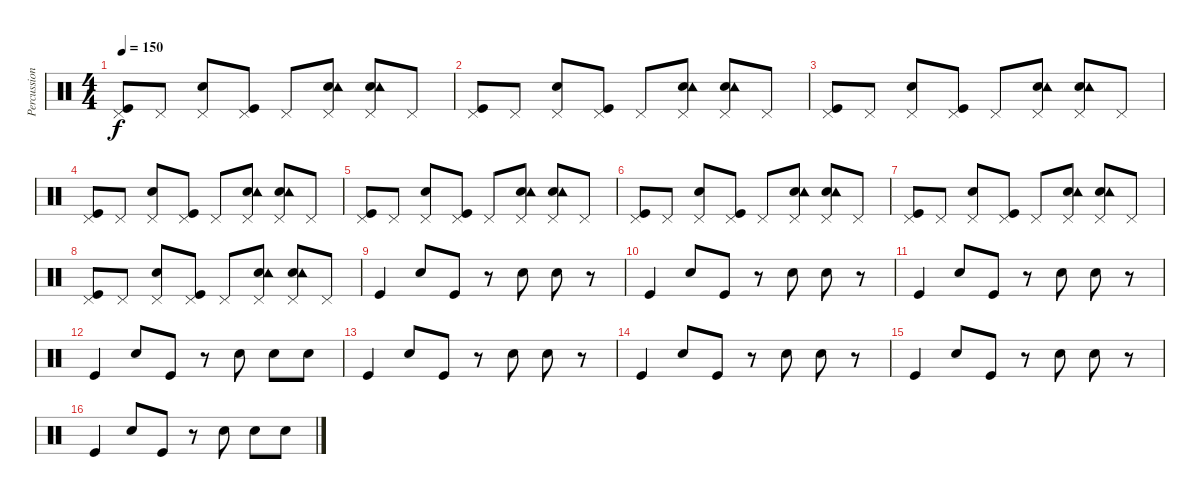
\track ("Percussion" "Percussion") {instrument percussion}
\staff {score}
\articulation defaults
\ts (4 4)
\tempo 150
\clef neutral
\ks c
("Kick (hit)" "Pedal Hi-Hat (hit)").8{dy f} "Pedal Hi-Hat (hit)".8 ("Electric Snare (hit)" "Pedal Hi-Hat (hit)").8 ("Kick (hit)" "Pedal Hi-Hat (hit)").8 "Pedal Hi-Hat (hit)".8 ("Electric Snare (hit)" "Tambourine (hit)" "Pedal Hi-Hat (hit)").8 ("Electric Snare (hit)" "Tambourine (hit)" "Pedal Hi-Hat (hit)").8 "Pedal Hi-Hat (hit)".8 |
("Kick (hit)" "Pedal Hi-Hat (hit)").8 "Pedal Hi-Hat (hit)".8 ("Electric Snare (hit)" "Pedal Hi-Hat (hit)").8 ("Kick (hit)" "Pedal Hi-Hat (hit)").8 "Pedal Hi-Hat (hit)".8 ("Electric Snare (hit)" "Tambourine (hit)" "Pedal Hi-Hat (hit)").8 ("Electric Snare (hit)" "Tambourine (hit)" "Pedal Hi-Hat (hit)").8 "Pedal Hi-Hat (hit)".8 |
("Kick (hit)" "Pedal Hi-Hat (hit)").8 "Pedal Hi-Hat (hit)".8 ("Electric Snare (hit)" "Pedal Hi-Hat (hit)").8 ("Kick (hit)" "Pedal Hi-Hat (hit)").8 "Pedal Hi-Hat (hit)".8 ("Electric Snare (hit)" "Tambourine (hit)" "Pedal Hi-Hat (hit)").8 ("Electric Snare (hit)" "Tambourine (hit)" "Pedal Hi-Hat (hit)").8 "Pedal Hi-Hat (hit)".8 |
("Kick (hit)" "Pedal Hi-Hat (hit)").8 "Pedal Hi-Hat (hit)".8 ("Electric Snare (hit)" "Pedal Hi-Hat (hit)").8 ("Kick (hit)" "Pedal Hi-Hat (hit)").8 "Pedal Hi-Hat (hit)".8 ("Electric Snare (hit)" "Tambourine (hit)" "Pedal Hi-Hat (hit)").8 ("Electric Snare (hit)" "Tambourine (hit)" "Pedal Hi-Hat (hit)").8 "Pedal Hi-Hat (hit)".8 |
("Kick (hit)" "Pedal Hi-Hat (hit)").8 "Pedal Hi-Hat (hit)".8 ("Electric Snare (hit)" "Pedal Hi-Hat (hit)").8 ("Kick (hit)" "Pedal Hi-Hat (hit)").8 "Pedal Hi-Hat (hit)".8 ("Electric Snare (hit)" "Tambourine (hit)" "Pedal Hi-Hat (hit)").8 ("Electric Snare (hit)" "Tambourine (hit)" "Pedal Hi-Hat (hit)").8 "Pedal Hi-Hat (hit)".8 |
("Kick (hit)" "Pedal Hi-Hat (hit)").8 "Pedal Hi-Hat (hit)".8 ("Electric Snare (hit)" "Pedal Hi-Hat (hit)").8 ("Kick (hit)" "Pedal Hi-Hat (hit)").8 "Pedal Hi-Hat (hit)".8 ("Electric Snare (hit)" "Tambourine (hit)" "Pedal Hi-Hat (hit)").8 ("Electric Snare (hit)" "Tambourine (hit)" "Pedal Hi-Hat (hit)").8 "Pedal Hi-Hat (hit)".8 |
("Kick (hit)" "Pedal Hi-Hat (hit)").8 "Pedal Hi-Hat (hit)".8 ("Electric Snare (hit)" "Pedal Hi-Hat (hit)").8 ("Kick (hit)" "Pedal Hi-Hat (hit)").8 "Pedal Hi-Hat (hit)".8 ("Electric Snare (hit)" "Tambourine (hit)" "Pedal Hi-Hat (hit)").8 ("Electric Snare (hit)" "Tambourine (hit)" "Pedal Hi-Hat (hit)").8 "Pedal Hi-Hat (hit)".8 |
("Kick (hit)" "Pedal Hi-Hat (hit)").8 "Pedal Hi-Hat (hit)".8 ("Electric Snare (hit)" "Pedal Hi-Hat (hit)").8 ("Kick (hit)" "Pedal Hi-Hat (hit)").8 "Pedal Hi-Hat (hit)".8 ("Electric Snare (hit)" "Tambourine (hit)" "Pedal Hi-Hat (hit)").8 ("Electric Snare (hit)" "Tambourine (hit)" "Pedal Hi-Hat (hit)").8 "Pedal Hi-Hat (hit)".8 |
"Kick (hit)".4 "Electric Snare (hit)".8 "Kick (hit)".8 r.8 "Electric Snare (hit)".8 "Electric Snare (hit)".8 r.8 |
"Kick (hit)".4 "Electric Snare (hit)".8 "Kick (hit)".8 r.8 "Electric Snare (hit)".8 "Electric Snare (hit)".8 r.8 |
"Kick (hit)".4 "Electric Snare (hit)".8 "Kick (hit)".8 r.8 "Electric Snare (hit)".8 "Electric Snare (hit)".8 r.8 |
"Kick (hit)".4 "Electric Snare (hit)".8 "Kick (hit)".8 r.8 "Electric Snare (hit)".8 "Electric Snare (hit)".8 "Electric Snare (hit)".8 |
"Kick (hit)".4 "Electric Snare (hit)".8 "Kick (hit)".8 r.8 "Electric Snare (hit)".8 "Electric Snare (hit)".8 r.8 |
"Kick (hit)".4 "Electric Snare (hit)".8 "Kick (hit)".8 r.8 "Electric Snare (hit)".8 "Electric Snare (hit)".8 r.8 |
"Kick (hit)".4 "Electric Snare (hit)".8 "Kick (hit)".8 r.8 "Electric Snare (hit)".8 "Electric Snare (hit)".8 r.8 |
"Kick (hit)".4 "Electric Snare (hit)".8 "Kick (hit)".8 r.8 "Electric Snare (hit)".8 "Electric Snare (hit)".8 "Electric Snare (hit)".8
